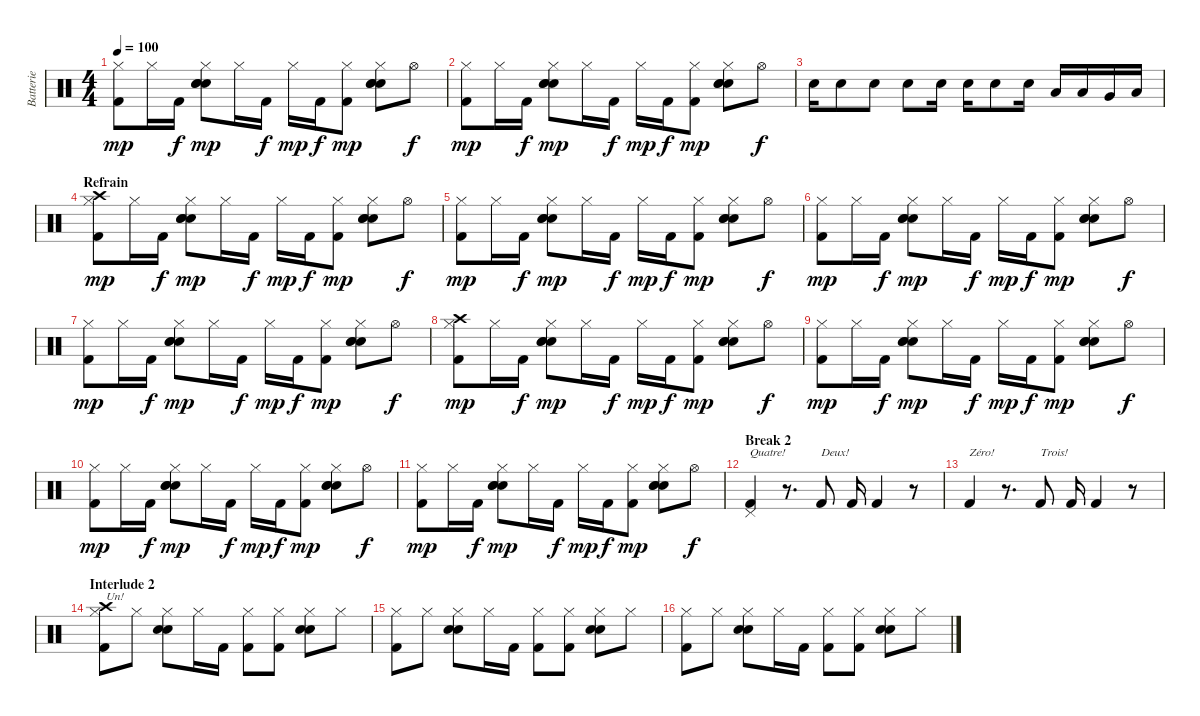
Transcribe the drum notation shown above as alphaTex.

\track ("Batterie" "Batterie") {instrument percussion}
\staff {score}
\articulation defaults
\ts (4 4)
\tempo 100
\clef neutral
\ks c
("Kick (hit) 2" "Hi-Hat (closed)").8{dy mp} "Hi-Hat (closed)".16 "Kick (hit) 2".16{dy f} ("Snare (hit) 2" "Snare (hit) 2" "Electric Snare (hit)" "Hi-Hat (closed)").8{dy mp} "Hi-Hat (closed)".16 "Kick (hit) 2".16{dy f} "Hi-Hat (closed)".16{dy mp} "Kick (hit) 2".16{dy f} ("Kick (hit) 2" "Hi-Hat (closed)").8{dy mp} ("Snare (hit) 2" "Snare (hit) 2" "Electric Snare (hit)" "Hi-Hat (closed)").8 "Hi-Hat (open)".8{dy f} |
("Kick (hit) 2" "Hi-Hat (closed)").8{dy mp} "Hi-Hat (closed)".16 "Kick (hit) 2".16{dy f} ("Snare (hit) 2" "Snare (hit) 2" "Electric Snare (hit)" "Hi-Hat (closed)").8{dy mp} "Hi-Hat (closed)".16 "Kick (hit) 2".16{dy f} "Hi-Hat (closed)".16{dy mp} "Kick (hit) 2".16{dy f} ("Kick (hit) 2" "Hi-Hat (closed)").8{dy mp} ("Snare (hit) 2" "Snare (hit) 2" "Electric Snare (hit)" "Hi-Hat (closed)").8 "Hi-Hat (open)".8{dy f} |
"Electric Snare (hit)".16 "Electric Snare (hit)".8 "Electric Snare (hit)".8 "Electric Snare (hit)".8 "Electric Snare (hit)".16 "Electric Snare (hit)".16 "Electric Snare (hit)".8 "Electric Snare (hit)".16 "Low Tom (hit)".16 "Low Tom (hit)".16 "Very Low Tom (hit)".16 "Low Floor Tom (hit)".16 |
\section ("" "Refrain")
("Crash high (hit)" "Kick (hit) 2" "Hi-Hat (closed)").8{dy mp} "Hi-Hat (closed)".16 "Kick (hit) 2".16{dy f} ("Snare (hit) 2" "Snare (hit) 2" "Electric Snare (hit)" "Hi-Hat (closed)").8{dy mp} "Hi-Hat (closed)".16 "Kick (hit) 2".16{dy f} "Hi-Hat (closed)".16{dy mp} "Kick (hit) 2".16{dy f} ("Kick (hit) 2" "Hi-Hat (closed)").8{dy mp} ("Snare (hit) 2" "Snare (hit) 2" "Electric Snare (hit)" "Hi-Hat (closed)").8 "Hi-Hat (open)".8{dy f} |
("Kick (hit) 2" "Hi-Hat (closed)").8{dy mp} "Hi-Hat (closed)".16 "Kick (hit) 2".16{dy f} ("Snare (hit) 2" "Snare (hit) 2" "Electric Snare (hit)" "Hi-Hat (closed)").8{dy mp} "Hi-Hat (closed)".16 "Kick (hit) 2".16{dy f} "Hi-Hat (closed)".16{dy mp} "Kick (hit) 2".16{dy f} ("Kick (hit) 2" "Hi-Hat (closed)").8{dy mp} ("Snare (hit) 2" "Snare (hit) 2" "Electric Snare (hit)" "Hi-Hat (closed)").8 "Hi-Hat (open)".8{dy f} |
("Kick (hit) 2" "Hi-Hat (closed)").8{dy mp} "Hi-Hat (closed)".16 "Kick (hit) 2".16{dy f} ("Snare (hit) 2" "Snare (hit) 2" "Electric Snare (hit)" "Hi-Hat (closed)").8{dy mp} "Hi-Hat (closed)".16 "Kick (hit) 2".16{dy f} "Hi-Hat (closed)".16{dy mp} "Kick (hit) 2".16{dy f} ("Kick (hit) 2" "Hi-Hat (closed)").8{dy mp} ("Snare (hit) 2" "Snare (hit) 2" "Electric Snare (hit)" "Hi-Hat (closed)").8 "Hi-Hat (open)".8{dy f} |
("Kick (hit) 2" "Hi-Hat (closed)").8{dy mp} "Hi-Hat (closed)".16 "Kick (hit) 2".16{dy f} ("Snare (hit) 2" "Snare (hit) 2" "Electric Snare (hit)" "Hi-Hat (closed)").8{dy mp} "Hi-Hat (closed)".16 "Kick (hit) 2".16{dy f} "Hi-Hat (closed)".16{dy mp} "Kick (hit) 2".16{dy f} ("Kick (hit) 2" "Hi-Hat (closed)").8{dy mp} ("Snare (hit) 2" "Snare (hit) 2" "Electric Snare (hit)" "Hi-Hat (closed)").8 "Hi-Hat (open)".8{dy f} |
("Crash high (hit)" "Kick (hit) 2" "Hi-Hat (closed)").8{dy mp} "Hi-Hat (closed)".16 "Kick (hit) 2".16{dy f} ("Snare (hit) 2" "Snare (hit) 2" "Electric Snare (hit)" "Hi-Hat (closed)").8{dy mp} "Hi-Hat (closed)".16 "Kick (hit) 2".16{dy f} "Hi-Hat (closed)".16{dy mp} "Kick (hit) 2".16{dy f} ("Kick (hit) 2" "Hi-Hat (closed)").8{dy mp} ("Snare (hit) 2" "Snare (hit) 2" "Electric Snare (hit)" "Hi-Hat (closed)").8 "Hi-Hat (open)".8{dy f} |
("Kick (hit) 2" "Hi-Hat (closed)").8{dy mp} "Hi-Hat (closed)".16 "Kick (hit) 2".16{dy f} ("Snare (hit) 2" "Snare (hit) 2" "Electric Snare (hit)" "Hi-Hat (closed)").8{dy mp} "Hi-Hat (closed)".16 "Kick (hit) 2".16{dy f} "Hi-Hat (closed)".16{dy mp} "Kick (hit) 2".16{dy f} ("Kick (hit) 2" "Hi-Hat (closed)").8{dy mp} ("Snare (hit) 2" "Snare (hit) 2" "Electric Snare (hit)" "Hi-Hat (closed)").8 "Hi-Hat (open)".8{dy f} |
("Kick (hit) 2" "Hi-Hat (closed)").8{dy mp} "Hi-Hat (closed)".16 "Kick (hit) 2".16{dy f} ("Snare (hit) 2" "Snare (hit) 2" "Electric Snare (hit)" "Hi-Hat (closed)").8{dy mp} "Hi-Hat (closed)".16 "Kick (hit) 2".16{dy f} "Hi-Hat (closed)".16{dy mp} "Kick (hit) 2".16{dy f} ("Kick (hit) 2" "Hi-Hat (closed)").8{dy mp} ("Snare (hit) 2" "Snare (hit) 2" "Electric Snare (hit)" "Hi-Hat (closed)").8 "Hi-Hat (open)".8{dy f} |
("Kick (hit) 2" "Hi-Hat (closed)").8{dy mp} "Hi-Hat (closed)".16 "Kick (hit) 2".16{dy f} ("Snare (hit) 2" "Snare (hit) 2" "Electric Snare (hit)" "Hi-Hat (closed)").8{dy mp} "Hi-Hat (closed)".16 "Kick (hit) 2".16{dy f} "Hi-Hat (closed)".16{dy mp} "Kick (hit) 2".16{dy f} ("Kick (hit) 2" "Hi-Hat (closed)").8{dy mp} ("Snare (hit) 2" "Snare (hit) 2" "Electric Snare (hit)" "Hi-Hat (closed)").8 "Hi-Hat (open)".8{dy f} |
\section ("" "Break 2")
("Pedal Hi-Hat (hit)" "Kick (hit) 2").4{txt "Quatre!"} r.8{d} "Kick (hit) 2".8{txt "Deux!"} "Kick (hit) 2".16 "Kick (hit) 2".4 r.8 |
"Kick (hit) 2".4{txt "Zéro!"} r.8{d} "Kick (hit) 2".8{txt "Trois!"} "Kick (hit) 2".16 "Kick (hit) 2".4 r.8 |
\section ("" "Interlude 2")
("Crash high (hit)" "Kick (hit) 2" "Hi-Hat (closed)").8{txt "Un!"} "Hi-Hat (closed)".8 ("Hand Clap (hit)" "Snare (hit) 2" "Hi-Hat (closed)").8 "Hi-Hat (closed)".16 "Kick (hit) 2".16 ("Kick (hit) 2" "Hi-Hat (closed)").8 ("Kick (hit) 2" "Hi-Hat (closed)").8 ("Hand Clap (hit)" "Snare (hit) 2" "Hi-Hat (closed)").8 "Hi-Hat (closed)".8 |
("Kick (hit) 2" "Hi-Hat (closed)").8 "Hi-Hat (closed)".8 ("Hand Clap (hit)" "Snare (hit) 2" "Hi-Hat (closed)").8 "Hi-Hat (closed)".16 "Kick (hit) 2".16 ("Kick (hit) 2" "Hi-Hat (closed)").8 ("Kick (hit) 2" "Hi-Hat (closed)").8 ("Hand Clap (hit)" "Snare (hit) 2" "Hi-Hat (closed)").8 "Hi-Hat (closed)".8 |
("Kick (hit) 2" "Hi-Hat (closed)").8 "Hi-Hat (closed)".8 ("Hand Clap (hit)" "Snare (hit) 2" "Hi-Hat (closed)").8 "Hi-Hat (closed)".16 "Kick (hit) 2".16 ("Kick (hit) 2" "Hi-Hat (closed)").8 ("Kick (hit) 2" "Hi-Hat (closed)").8 ("Hand Clap (hit)" "Snare (hit) 2" "Hi-Hat (closed)").8 "Hi-Hat (closed)".8
